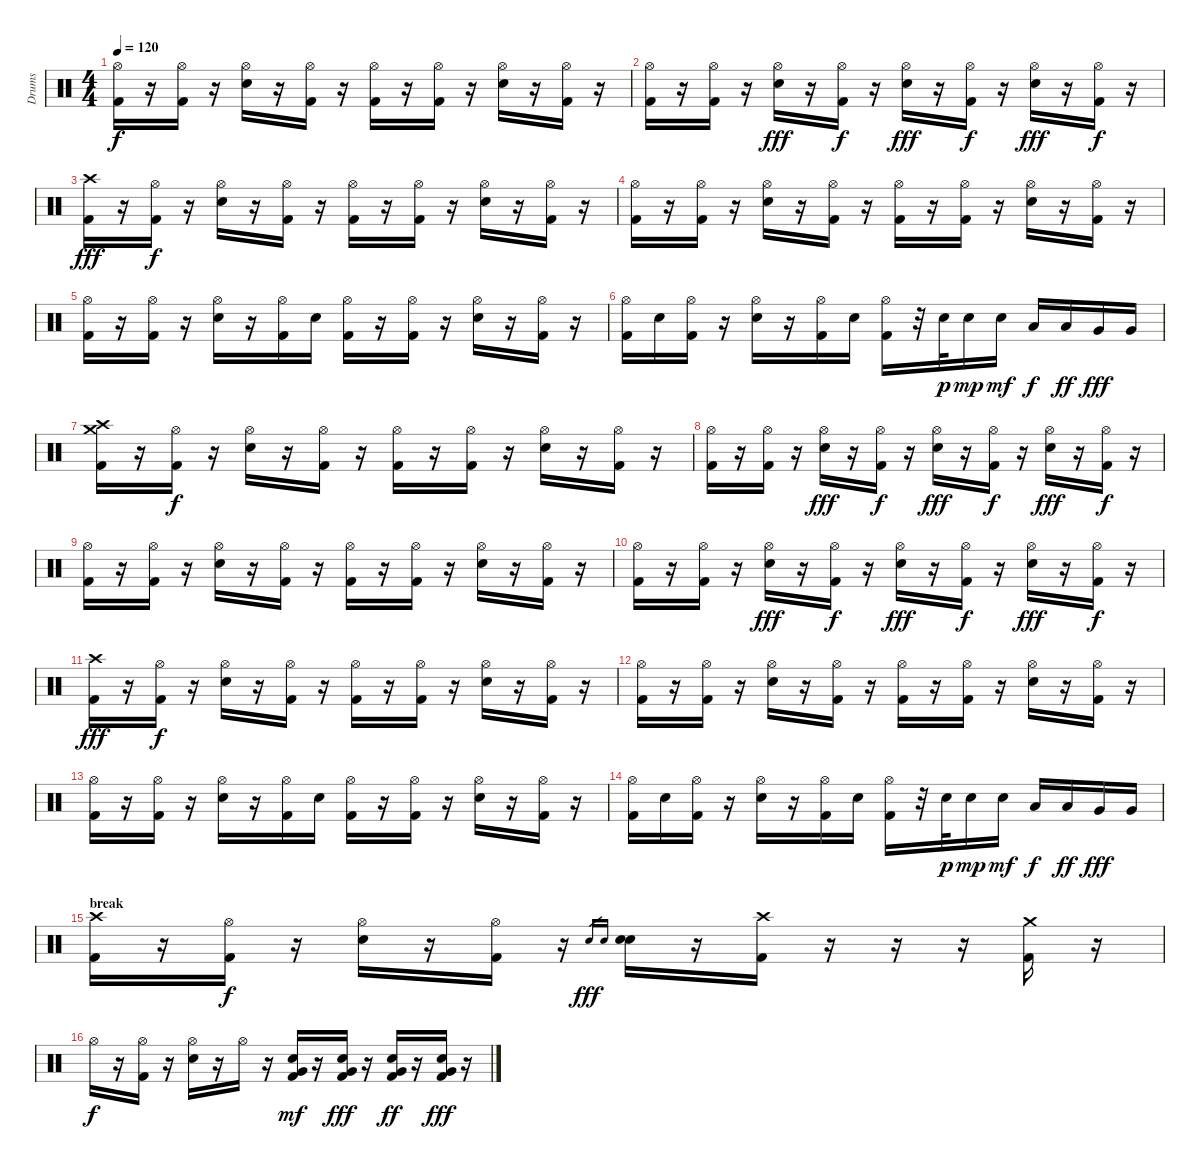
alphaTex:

\track ("Drums" "Drums") {instrument percussion}
\staff {score}
\articulation defaults
\ts (4 4)
\tempo 120
\clef neutral
\ks c
("Hi-Hat (open)" "Kick (hit) 2").16{dy f} r.16 ("Hi-Hat (open)" "Kick (hit) 2").16 r.16 ("Hi-Hat (open)" "Electric Snare (hit)").16 r.16 ("Hi-Hat (open)" "Kick (hit) 2").16 r.16 ("Hi-Hat (open)" "Kick (hit) 2").16 r.16 ("Hi-Hat (open)" "Kick (hit) 2").16 r.16 ("Hi-Hat (open)" "Electric Snare (hit)").16 r.16 ("Hi-Hat (open)" "Kick (hit) 2").16 r.16 |
("Hi-Hat (open)" "Kick (hit) 2").16 r.16 ("Hi-Hat (open)" "Kick (hit) 2").16 r.16 ("Hi-Hat (open)" "Electric Snare (hit)").16{dy fff} r.16 ("Hi-Hat (open)" "Kick (hit) 2").16{dy f} r.16 ("Hi-Hat (open)" "Electric Snare (hit)").16{dy fff} r.16 ("Hi-Hat (open)" "Kick (hit) 2").16{dy f} r.16 ("Hi-Hat (open)" "Electric Snare (hit)").16{dy fff} r.16 ("Hi-Hat (open)" "Kick (hit) 2").16{dy f} r.16 |
("Crash high (hit)" "Kick (hit) 2").16{dy fff} r.16 ("Hi-Hat (open)" "Kick (hit) 2").16{dy f} r.16 ("Hi-Hat (open)" "Electric Snare (hit)").16 r.16 ("Hi-Hat (open)" "Kick (hit) 2").16 r.16 ("Hi-Hat (open)" "Kick (hit) 2").16 r.16 ("Hi-Hat (open)" "Kick (hit) 2").16 r.16 ("Hi-Hat (open)" "Electric Snare (hit)").16 r.16 ("Hi-Hat (open)" "Kick (hit) 2").16 r.16 |
("Hi-Hat (open)" "Kick (hit) 2").16 r.16 ("Hi-Hat (open)" "Kick (hit) 2").16 r.16 ("Hi-Hat (open)" "Electric Snare (hit)").16 r.16 ("Hi-Hat (open)" "Kick (hit) 2").16 r.16 ("Hi-Hat (open)" "Kick (hit) 2").16 r.16 ("Hi-Hat (open)" "Kick (hit) 2").16 r.16 ("Hi-Hat (open)" "Electric Snare (hit)").16 r.16 ("Hi-Hat (open)" "Kick (hit) 2").16 r.16 |
("Hi-Hat (open)" "Kick (hit) 2").16 r.16 ("Hi-Hat (open)" "Kick (hit) 2").16 r.16 ("Hi-Hat (open)" "Electric Snare (hit)").16 r.16 ("Hi-Hat (open)" "Kick (hit) 2").16 "Electric Snare (hit)".16 ("Hi-Hat (open)" "Kick (hit) 2").16 r.16 ("Hi-Hat (open)" "Kick (hit) 2").16 r.16 ("Hi-Hat (open)" "Electric Snare (hit)").16 r.16 ("Hi-Hat (open)" "Kick (hit) 2").16 r.16 |
("Hi-Hat (open)" "Kick (hit) 2").16 "Electric Snare (hit)".16 ("Hi-Hat (open)" "Kick (hit) 2").16 r.16 ("Hi-Hat (open)" "Electric Snare (hit)").16 r.16 ("Hi-Hat (open)" "Kick (hit) 2").16 "Electric Snare (hit)".16 ("Hi-Hat (open)" "Kick (hit) 2").16 r.32 "Electric Snare (hit)".32{dy p} "Electric Snare (hit)".16{dy mp} "Electric Snare (hit)".16{dy mf} "Low Tom (hit)".16{dy f} "Low Tom (hit)".16{dy ff} "Very Low Tom (hit)".16{dy fff} "Very Low Tom (hit)".16 |
("Crash high (hit)" "Crash medium (hit)" "Kick (hit) 2").16 r.16 ("Hi-Hat (open)" "Kick (hit) 2").16{dy f} r.16 ("Hi-Hat (open)" "Electric Snare (hit)").16 r.16 ("Hi-Hat (open)" "Kick (hit) 2").16 r.16 ("Hi-Hat (open)" "Kick (hit) 2").16 r.16 ("Hi-Hat (open)" "Kick (hit) 2").16 r.16 ("Hi-Hat (open)" "Electric Snare (hit)").16 r.16 ("Hi-Hat (open)" "Kick (hit) 2").16 r.16 |
("Hi-Hat (open)" "Kick (hit) 2").16 r.16 ("Hi-Hat (open)" "Kick (hit) 2").16 r.16 ("Hi-Hat (open)" "Electric Snare (hit)").16{dy fff} r.16 ("Hi-Hat (open)" "Kick (hit) 2").16{dy f} r.16 ("Hi-Hat (open)" "Electric Snare (hit)").16{dy fff} r.16 ("Hi-Hat (open)" "Kick (hit) 2").16{dy f} r.16 ("Hi-Hat (open)" "Electric Snare (hit)").16{dy fff} r.16 ("Hi-Hat (open)" "Kick (hit) 2").16{dy f} r.16 |
("Hi-Hat (open)" "Kick (hit) 2").16 r.16 ("Hi-Hat (open)" "Kick (hit) 2").16 r.16 ("Hi-Hat (open)" "Electric Snare (hit)").16 r.16 ("Hi-Hat (open)" "Kick (hit) 2").16 r.16 ("Hi-Hat (open)" "Kick (hit) 2").16 r.16 ("Hi-Hat (open)" "Kick (hit) 2").16 r.16 ("Hi-Hat (open)" "Electric Snare (hit)").16 r.16 ("Hi-Hat (open)" "Kick (hit) 2").16 r.16 |
("Hi-Hat (open)" "Kick (hit) 2").16 r.16 ("Hi-Hat (open)" "Kick (hit) 2").16 r.16 ("Hi-Hat (open)" "Electric Snare (hit)").16{dy fff} r.16 ("Hi-Hat (open)" "Kick (hit) 2").16{dy f} r.16 ("Hi-Hat (open)" "Electric Snare (hit)").16{dy fff} r.16 ("Hi-Hat (open)" "Kick (hit) 2").16{dy f} r.16 ("Hi-Hat (open)" "Electric Snare (hit)").16{dy fff} r.16 ("Hi-Hat (open)" "Kick (hit) 2").16{dy f} r.16 |
("Crash high (hit)" "Kick (hit) 2").16{dy fff} r.16 ("Hi-Hat (open)" "Kick (hit) 2").16{dy f} r.16 ("Hi-Hat (open)" "Electric Snare (hit)").16 r.16 ("Hi-Hat (open)" "Kick (hit) 2").16 r.16 ("Hi-Hat (open)" "Kick (hit) 2").16 r.16 ("Hi-Hat (open)" "Kick (hit) 2").16 r.16 ("Hi-Hat (open)" "Electric Snare (hit)").16 r.16 ("Hi-Hat (open)" "Kick (hit) 2").16 r.16 |
("Hi-Hat (open)" "Kick (hit) 2").16 r.16 ("Hi-Hat (open)" "Kick (hit) 2").16 r.16 ("Hi-Hat (open)" "Electric Snare (hit)").16 r.16 ("Hi-Hat (open)" "Kick (hit) 2").16 r.16 ("Hi-Hat (open)" "Kick (hit) 2").16 r.16 ("Hi-Hat (open)" "Kick (hit) 2").16 r.16 ("Hi-Hat (open)" "Electric Snare (hit)").16 r.16 ("Hi-Hat (open)" "Kick (hit) 2").16 r.16 |
("Hi-Hat (open)" "Kick (hit) 2").16 r.16 ("Hi-Hat (open)" "Kick (hit) 2").16 r.16 ("Hi-Hat (open)" "Electric Snare (hit)").16 r.16 ("Hi-Hat (open)" "Kick (hit) 2").16 "Electric Snare (hit)".16 ("Hi-Hat (open)" "Kick (hit) 2").16 r.16 ("Hi-Hat (open)" "Kick (hit) 2").16 r.16 ("Hi-Hat (open)" "Electric Snare (hit)").16 r.16 ("Hi-Hat (open)" "Kick (hit) 2").16 r.16 |
("Hi-Hat (open)" "Kick (hit) 2").16 "Electric Snare (hit)".16 ("Hi-Hat (open)" "Kick (hit) 2").16 r.16 ("Hi-Hat (open)" "Electric Snare (hit)").16 r.16 ("Hi-Hat (open)" "Kick (hit) 2").16 "Electric Snare (hit)".16 ("Hi-Hat (open)" "Kick (hit) 2").16 r.32 "Electric Snare (hit)".32{dy p} "Electric Snare (hit)".16{dy mp} "Electric Snare (hit)".16{dy mf} "Low Tom (hit)".16{dy f} "Low Tom (hit)".16{dy ff} "Very Low Tom (hit)".16{dy fff} "Very Low Tom (hit)".16 |
\section ("" "break")
("Crash high (hit)" "Kick (hit) 2").16 r.16 ("Hi-Hat (open)" "Kick (hit) 2").16{dy f} r.16 ("Hi-Hat (open)" "Electric Snare (hit)").16 r.16 ("Hi-Hat (open)" "Kick (hit) 2").16 r.16 "Electric Snare (hit)".16{gr dy fff} "Electric Snare (hit)".16{gr} ("Electric Snare (hit)" "Electric Snare (hit)").16 r.16 ("Crash high (hit)" "Kick (hit) 2").16 r.16 r.16 r.16 ("Crash medium (hit)" "Kick (hit) 2").16 r.16 |
"Hi-Hat (open)".16{dy f} r.16 ("Hi-Hat (open)" "Kick (hit) 2").16 r.16 ("Hi-Hat (open)" "Electric Snare (hit)").16 r.16 "Hi-Hat (open)".16 r.16 ("Electric Snare (hit)" "Very Low Tom (hit)" "Kick (hit) 2").16{dy mf} r.16 ("Electric Snare (hit)" "Very Low Tom (hit)" "Kick (hit) 2").16{dy fff} r.16 ("Electric Snare (hit)" "Very Low Tom (hit)" "Kick (hit) 2").16{dy ff} r.16 ("Electric Snare (hit)" "Very Low Tom (hit)" "Kick (hit) 2").16{dy fff} r.16
